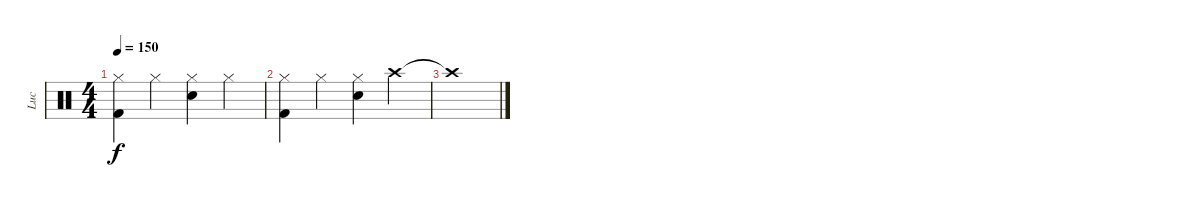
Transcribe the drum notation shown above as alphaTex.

\track ("Luc" "Luc") {instrument percussion}
\staff {score}
\articulation defaults
\ts (4 4)
\tempo 150
\clef neutral
\ks c
("Hi-Hat (closed)" "Kick (hit) 2").4{dy f} "Hi-Hat (closed)".4 ("Hi-Hat (closed)" "Snare (hit) 2").4 "Hi-Hat (closed)".4 |
("Hi-Hat (closed)" "Kick (hit) 2").4 "Hi-Hat (closed)".4 ("Hi-Hat (closed)" "Snare (hit) 2").4 "Crash high (hit)".4 |
"Crash high (hit)"{t}.1
